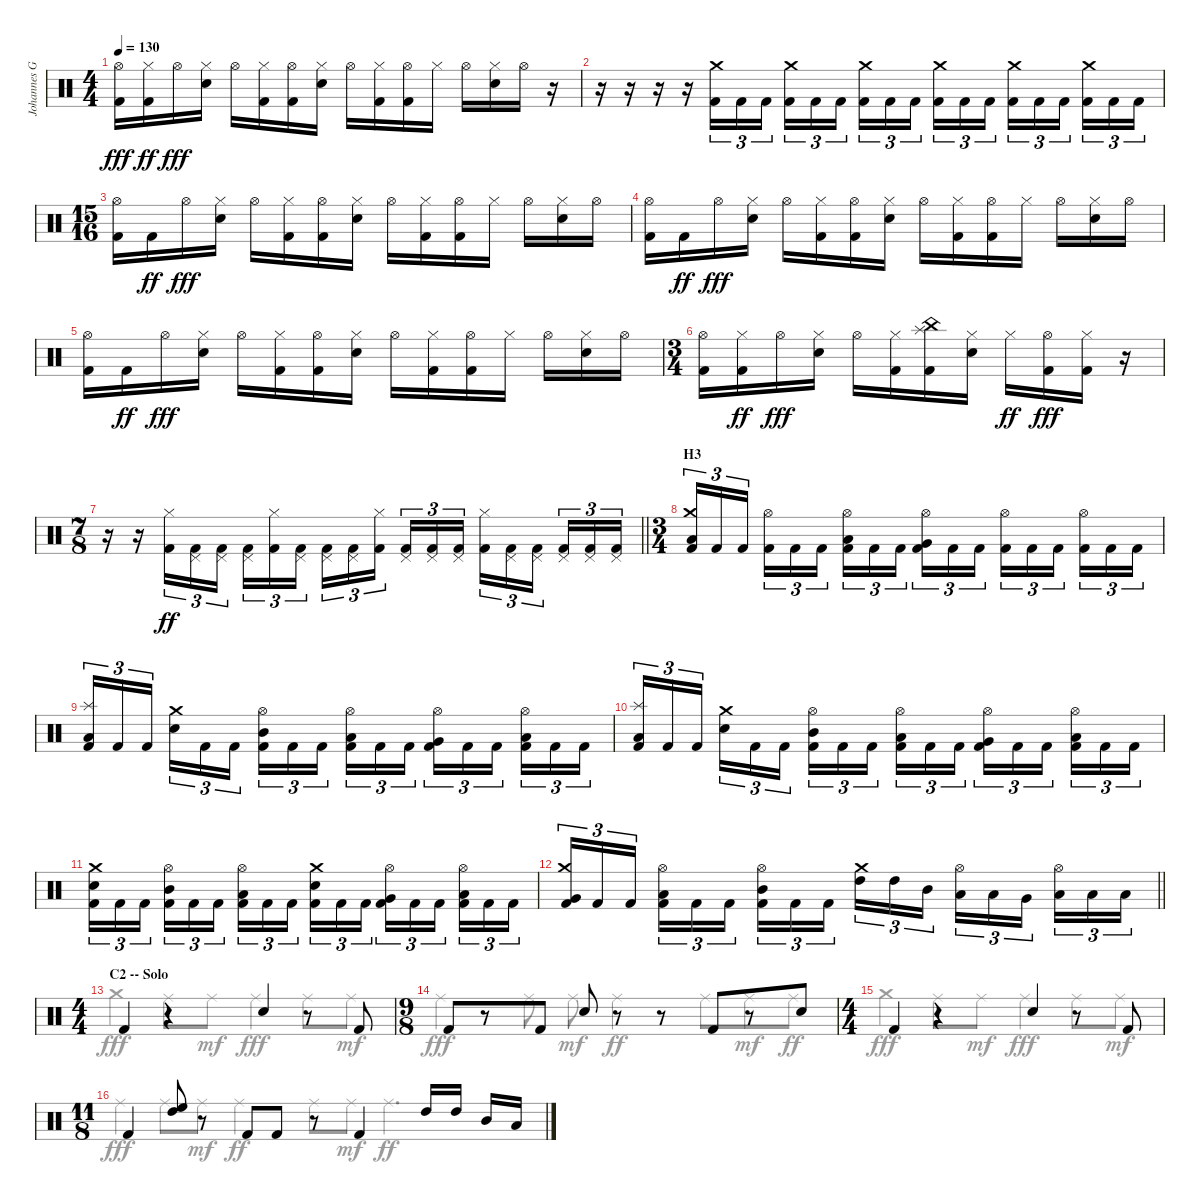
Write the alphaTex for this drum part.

\track ("Johannes Grossmann" "Johannes G") {instrument percussion}
\staff {score}
\articulation defaults
\voice
\ts (4 4)
\tempo 130
\clef neutral
\ks c
("Hi-Hat (open)" "Kick (hit) 2").16{dy fff} ("Hi-Hat (closed)" "Kick (hit) 2").16{dy ff} "Hi-Hat (open)".16{dy fff} ("Hi-Hat (closed)" "Snare (hit) 2").16 "Hi-Hat (open)".16 ("Hi-Hat (closed)" "Kick (hit) 2").16 ("Hi-Hat (open)" "Kick (hit) 2").16 ("Hi-Hat (closed)" "Snare (hit) 2").16 "Hi-Hat (open)".16 ("Hi-Hat (closed)" "Kick (hit) 2").16 ("Hi-Hat (open)" "Kick (hit) 2").16 "Hi-Hat (closed)".16 "Hi-Hat (open)".16 ("Hi-Hat (closed)" "Snare (hit) 2").16 "Hi-Hat (open)".16 r.16 |
r.16 r.16 r.16 r.16 ("Crash medium (hit)" "Kick (hit) 2").16{tu (3 2)} "Kick (hit) 2".16{tu (3 2)} "Kick (hit) 2".16{tu (3 2) beam splitsecondary} ("Crash medium (hit)" "Kick (hit) 2").16{tu (3 2)} "Kick (hit) 2".16{tu (3 2)} "Kick (hit) 2".16{tu (3 2)} ("Crash medium (hit)" "Kick (hit) 2").16{tu (3 2)} "Kick (hit) 2".16{tu (3 2)} "Kick (hit) 2".16{tu (3 2) beam splitsecondary} ("Crash medium (hit)" "Kick (hit) 2").16{tu (3 2)} "Kick (hit) 2".16{tu (3 2)} "Kick (hit) 2".16{tu (3 2)} ("Crash medium (hit)" "Kick (hit) 2").16{tu (3 2)} "Kick (hit) 2".16{tu (3 2)} "Kick (hit) 2".16{tu (3 2) beam splitsecondary} ("Crash medium (hit)" "Kick (hit) 2").16{tu (3 2)} "Kick (hit) 2".16{tu (3 2)} "Kick (hit) 2".16{tu (3 2)} |
\ts (15 16)
("Hi-Hat (open)" "Kick (hit) 2").16 "Kick (hit) 2".16{dy ff} "Hi-Hat (open)".16{dy fff} ("Hi-Hat (closed)" "Snare (hit) 2").16 "Hi-Hat (open)".16 ("Hi-Hat (closed)" "Kick (hit) 2").16 ("Hi-Hat (open)" "Kick (hit) 2").16 ("Hi-Hat (closed)" "Snare (hit) 2").16 "Hi-Hat (open)".16 ("Hi-Hat (closed)" "Kick (hit) 2").16 ("Hi-Hat (open)" "Kick (hit) 2").16 "Hi-Hat (closed)".16 "Hi-Hat (open)".16 ("Hi-Hat (closed)" "Snare (hit) 2").16 "Hi-Hat (open)".16 |
("Hi-Hat (open)" "Kick (hit) 2").16 "Kick (hit) 2".16{dy ff} "Hi-Hat (open)".16{dy fff} ("Hi-Hat (closed)" "Snare (hit) 2").16 "Hi-Hat (open)".16 ("Hi-Hat (closed)" "Kick (hit) 2").16 ("Hi-Hat (open)" "Kick (hit) 2").16 ("Hi-Hat (closed)" "Snare (hit) 2").16 "Hi-Hat (open)".16 ("Hi-Hat (closed)" "Kick (hit) 2").16 ("Hi-Hat (open)" "Kick (hit) 2").16 "Hi-Hat (closed)".16 "Hi-Hat (open)".16 ("Hi-Hat (closed)" "Snare (hit) 2").16 "Hi-Hat (open)".16 |
("Hi-Hat (open)" "Kick (hit) 2").16 "Kick (hit) 2".16{dy ff} "Hi-Hat (open)".16{dy fff} ("Hi-Hat (closed)" "Snare (hit) 2").16 "Hi-Hat (open)".16 ("Hi-Hat (closed)" "Kick (hit) 2").16 ("Hi-Hat (open)" "Kick (hit) 2").16 ("Hi-Hat (closed)" "Snare (hit) 2").16 "Hi-Hat (open)".16 ("Hi-Hat (closed)" "Kick (hit) 2").16 ("Hi-Hat (open)" "Kick (hit) 2").16 "Hi-Hat (closed)".16 "Hi-Hat (open)".16 ("Hi-Hat (closed)" "Snare (hit) 2").16 "Hi-Hat (open)".16 |
\ts (3 4)
("Hi-Hat (open)" "Kick (hit) 2").16 ("Hi-Hat (closed)" "Kick (hit) 2").16{dy ff} "Hi-Hat (open)".16{dy fff} ("Hi-Hat (closed)" "Snare (hit) 2").16 "Hi-Hat (open)".16 ("Hi-Hat (closed)" "Kick (hit) 2").16 ("China (hit)" "Splash (hit)" "Kick (hit) 2").16 ("Hi-Hat (closed)" "Snare (hit) 2").16 "Hi-Hat (closed)".16{dy ff} ("Hi-Hat (open)" "Kick (hit) 2").16{dy fff} ("Hi-Hat (closed)" "Kick (hit) 2").16 r.16 |
\ts (7 8)
\barLineRight lightlight
r.16 r.16 ("Hi-Hat (closed)" "Kick (hit) 2").16{tu (3 2) dy ff} ("Pedal Hi-Hat (hit)" "Kick (hit) 2").16{tu (3 2)} ("Pedal Hi-Hat (hit)" "Kick (hit) 2").16{tu (3 2)} ("Pedal Hi-Hat (hit)" "Kick (hit) 2").16{tu (3 2)} ("Hi-Hat (closed)" "Kick (hit) 2").16{tu (3 2)} ("Pedal Hi-Hat (hit)" "Kick (hit) 2").16{tu (3 2)} ("Pedal Hi-Hat (hit)" "Kick (hit) 2").16{tu (3 2)} ("Pedal Hi-Hat (hit)" "Kick (hit) 2").16{tu (3 2)} ("Hi-Hat (closed)" "Kick (hit) 2").16{tu (3 2)} ("Pedal Hi-Hat (hit)" "Kick (hit) 2").16{tu (3 2)} ("Pedal Hi-Hat (hit)" "Kick (hit) 2").16{tu (3 2)} ("Pedal Hi-Hat (hit)" "Kick (hit) 2").16{tu (3 2)} ("Hi-Hat (closed)" "Kick (hit) 2").16{tu (3 2)} ("Pedal Hi-Hat (hit)" "Kick (hit) 2").16{tu (3 2)} ("Pedal Hi-Hat (hit)" "Kick (hit) 2").16{tu (3 2)} ("Pedal Hi-Hat (hit)" "Kick (hit) 2").16{tu (3 2)} ("Pedal Hi-Hat (hit)" "Kick (hit) 2").16{tu (3 2)} ("Pedal Hi-Hat (hit)" "Kick (hit) 2").16{tu (3 2)} |
\ts (3 4)
\section ("" "H3")
("Crash medium (hit)" "Low Floor Tom (hit)" "Kick (hit) 2").16{tu (3 2)} "Kick (hit) 2".16{tu (3 2)} "Kick (hit) 2".16{tu (3 2) beam splitsecondary} ("Hi-Hat (open)" "Kick (hit) 2").16{tu (3 2)} "Kick (hit) 2".16{tu (3 2)} "Kick (hit) 2".16{tu (3 2)} ("Hi-Hat (open)" "Low Tom (hit)" "Kick (hit) 2").16{tu (3 2)} "Kick (hit) 2".16{tu (3 2)} "Kick (hit) 2".16{tu (3 2) beam splitsecondary} ("Hi-Hat (open)" "Very Low Tom (hit)" "Kick (hit) 2").16{tu (3 2)} "Kick (hit) 2".16{tu (3 2)} "Kick (hit) 2".16{tu (3 2)} ("Hi-Hat (open)" "Kick (hit) 2").16{tu (3 2)} "Kick (hit) 2".16{tu (3 2)} "Kick (hit) 2".16{tu (3 2) beam splitsecondary} ("Hi-Hat (open)" "Kick (hit) 2").16{tu (3 2)} "Kick (hit) 2".16{tu (3 2)} "Kick (hit) 2".16{tu (3 2)} |
("Splash (hit)" "Low Floor Tom (hit)" "Kick (hit) 2").16{tu (3 2)} "Kick (hit) 2".16{tu (3 2)} "Kick (hit) 2".16{tu (3 2) beam splitsecondary} ("Crash medium (hit)" "Snare (hit) 2").16{tu (3 2)} "Kick (hit) 2".16{tu (3 2)} "Kick (hit) 2".16{tu (3 2)} ("Hi-Hat (open)" "Mid Tom (hit)" "Kick (hit) 2").16{tu (3 2)} "Kick (hit) 2".16{tu (3 2)} "Kick (hit) 2".16{tu (3 2) beam splitsecondary} ("Hi-Hat (open)" "Low Tom (hit)" "Kick (hit) 2").16{tu (3 2)} "Kick (hit) 2".16{tu (3 2)} "Kick (hit) 2".16{tu (3 2)} ("Hi-Hat (open)" "Very Low Tom (hit)" "Kick (hit) 2").16{tu (3 2)} "Kick (hit) 2".16{tu (3 2)} "Kick (hit) 2".16{tu (3 2) beam splitsecondary} ("Hi-Hat (open)" "Low Tom (hit)" "Kick (hit) 2").16{tu (3 2)} "Kick (hit) 2".16{tu (3 2)} "Kick (hit) 2".16{tu (3 2)} |
("Splash (hit)" "Low Floor Tom (hit)" "Kick (hit) 2").16{tu (3 2)} "Kick (hit) 2".16{tu (3 2)} "Kick (hit) 2".16{tu (3 2) beam splitsecondary} ("Crash medium (hit)" "Snare (hit) 2").16{tu (3 2)} "Kick (hit) 2".16{tu (3 2)} "Kick (hit) 2".16{tu (3 2)} ("Hi-Hat (open)" "Mid Tom (hit)" "Kick (hit) 2").16{tu (3 2)} "Kick (hit) 2".16{tu (3 2)} "Kick (hit) 2".16{tu (3 2) beam splitsecondary} ("Hi-Hat (open)" "Low Tom (hit)" "Kick (hit) 2").16{tu (3 2)} "Kick (hit) 2".16{tu (3 2)} "Kick (hit) 2".16{tu (3 2)} ("Hi-Hat (open)" "Very Low Tom (hit)" "Kick (hit) 2").16{tu (3 2)} "Kick (hit) 2".16{tu (3 2)} "Kick (hit) 2".16{tu (3 2) beam splitsecondary} ("Hi-Hat (open)" "Low Tom (hit)" "Kick (hit) 2").16{tu (3 2)} "Kick (hit) 2".16{tu (3 2)} "Kick (hit) 2".16{tu (3 2)} |
("Crash medium (hit)" "Snare (hit) 2" "Kick (hit) 2").16{tu (3 2)} "Kick (hit) 2".16{tu (3 2)} "Kick (hit) 2".16{tu (3 2) beam splitsecondary} ("Hi-Hat (open)" "Mid Tom (hit)" "Kick (hit) 2").16{tu (3 2)} "Kick (hit) 2".16{tu (3 2)} "Kick (hit) 2".16{tu (3 2)} ("Hi-Hat (open)" "Low Tom (hit)" "Kick (hit) 2").16{tu (3 2)} "Kick (hit) 2".16{tu (3 2)} "Kick (hit) 2".16{tu (3 2) beam splitsecondary} ("Crash medium (hit)" "Snare (hit) 2" "Kick (hit) 2").16{tu (3 2)} "Kick (hit) 2".16{tu (3 2)} "Kick (hit) 2".16{tu (3 2)} ("Hi-Hat (open)" "Very Low Tom (hit)" "Kick (hit) 2").16{tu (3 2)} "Kick (hit) 2".16{tu (3 2)} "Kick (hit) 2".16{tu (3 2) beam splitsecondary} ("Hi-Hat (open)" "Low Floor Tom (hit)" "Kick (hit) 2").16{tu (3 2)} "Kick (hit) 2".16{tu (3 2)} "Kick (hit) 2".16{tu (3 2)} |
\barLineRight lightlight
("Crash medium (hit)" "Very Low Tom (hit)" "Kick (hit) 2").16{tu (3 2)} "Kick (hit) 2".16{tu (3 2)} "Kick (hit) 2".16{tu (3 2) beam splitsecondary} ("Hi-Hat (open)" "Low Tom (hit)" "Kick (hit) 2").16{tu (3 2)} "Kick (hit) 2".16{tu (3 2)} "Kick (hit) 2".16{tu (3 2)} ("Hi-Hat (open)" "Mid Tom (hit)" "Kick (hit) 2").16{tu (3 2)} "Kick (hit) 2".16{tu (3 2)} "Kick (hit) 2".16{tu (3 2) beam splitsecondary} ("Crash medium (hit)" "High Tom (hit)").16{tu (3 2)} "High Tom (hit)".16{tu (3 2)} "Mid Tom (hit)".16{tu (3 2)} ("Hi-Hat (open)" "Low Tom (hit)").16{tu (3 2)} "Low Tom (hit)".16{tu (3 2)} "Very Low Tom (hit)".16{tu (3 2) beam splitsecondary} ("Hi-Hat (open)" "Low Floor Tom (hit)").16{tu (3 2)} "Low Floor Tom (hit)".16{tu (3 2)} "Low Floor Tom (hit)".16{tu (3 2)} |
\ts (4 4)
\section ("" "C2 -- Solo")
"Kick (hit) 2".4 r.4 "Snare (hit) 2".4 r.8 "Kick (hit) 2".8 |
\ts (9 8)
"Kick (hit) 2".8 r.8 "Kick (hit) 2".8 "Snare (hit) 2".8 r.8 r.8 "Kick (hit) 2".8 r.8 "Snare (hit) 2".8 |
\ts (4 4)
"Kick (hit) 2".4 r.4 "Snare (hit) 2".4 r.8 "Kick (hit) 2".8 |
\ts (11 8)
"Kick (hit) 2".4 ("High Floor Tom (hit)" "High Tom (hit)").8 r.8 "Kick (hit) 2".8 "Kick (hit) 2".8 r.8 "Kick (hit) 2".4 "High Tom (hit)".16 "High Tom (hit)".16 "Mid Tom (hit)".16 "Low Tom (hit)".16
\voice
\clef neutral
\ottava regular
\simile none
\ks c
|
|
|
|
|
|
\barLineRight lightlight
|
|
|
|
|
\barLineRight lightlight
|
"Crash medium (hit)".4{dy fff} "Ride (middle)".8 "Ride (middle)".8{dy mf} "Ride (middle)".4{dy fff} "Ride (middle)".8 "Ride (middle)".8{dy mf} |
"Ride (middle)".4{dy fff} "Ride (middle)".8 "Ride (middle)".8{dy mf} "Ride (middle)".4{dy ff} "Ride (middle)".8 "Ride (middle)".8{dy mf} "Ride (middle)".8{dy ff} |
"Crash medium (hit)".4{dy fff} "Ride (middle)".8 "Ride (middle)".8{dy mf} "Ride (middle)".4{dy fff} "Ride (middle)".8 "Ride (middle)".8{dy mf} |
"Ride (middle)".4{dy fff} "Ride (middle)".8 "Ride (middle)".8{dy mf} "Ride (middle)".4{dy ff} "Ride (middle)".8 "Ride (middle)".8{dy mf} "Ride (middle)".4{d dy ff}
